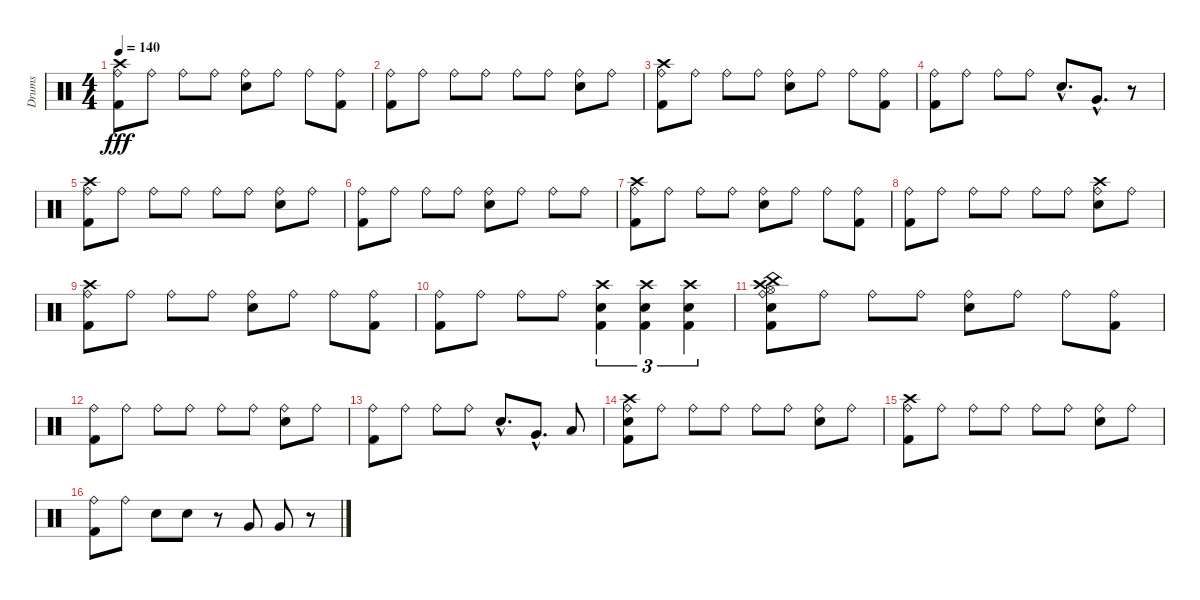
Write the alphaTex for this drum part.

\track ("Drums" "Drums") {instrument percussion}
\staff {score}
\articulation defaults
\ts (4 4)
\tempo 140
\clef neutral
\ks c
("Crash high (hit)" "Ride (bell)" "Kick (hit) 2").8{dy fff} "Ride (bell)".8 "Ride (bell)".8 "Ride (bell)".8 ("Ride (bell)" "Snare (hit) 2").8 "Ride (bell)".8 "Ride (bell)".8 ("Ride (bell)" "Kick (hit) 2").8 |
("Ride (bell)" "Kick (hit) 2").8 "Ride (bell)".8 "Ride (bell)".8 "Ride (bell)".8 "Ride (bell)".8 "Ride (bell)".8 ("Ride (bell)" "Snare (hit) 2").8 "Ride (bell)".8 |
("Crash high (hit)" "Ride (bell)" "Kick (hit) 2").8 "Ride (bell)".8 "Ride (bell)".8 "Ride (bell)".8 ("Ride (bell)" "Snare (hit) 2").8 "Ride (bell)".8 "Ride (bell)".8 ("Ride (bell)" "Kick (hit) 2").8 |
("Ride (bell)" "Kick (hit) 2").8 "Ride (bell)".8 "Ride (bell)".8 "Ride (bell)".8 "Snare (hit) 2"{hac}.8{d} "Very Low Tom (hit)"{hac}.8{d} r.8 |
("Crash high (hit)" "Ride (bell)" "Kick (hit) 2").8 "Ride (bell)".8 "Ride (bell)".8 "Ride (bell)".8 "Ride (bell)".8 "Ride (bell)".8 ("Ride (bell)" "Snare (hit) 2").8 "Ride (bell)".8 |
("Ride (bell)" "Kick (hit) 2").8 "Ride (bell)".8 "Ride (bell)".8 "Ride (bell)".8 ("Ride (bell)" "Snare (hit) 2").8 "Ride (bell)".8 "Ride (bell)".8 "Ride (bell)".8 |
("Crash high (hit)" "Ride (bell)" "Kick (hit) 2").8 "Ride (bell)".8 "Ride (bell)".8 "Ride (bell)".8 ("Ride (bell)" "Snare (hit) 2").8 "Ride (bell)".8 "Ride (bell)".8 ("Ride (bell)" "Kick (hit) 2").8 |
("Ride (bell)" "Kick (hit) 2").8 "Ride (bell)".8 "Ride (bell)".8 "Ride (bell)".8 "Ride (bell)".8 "Ride (bell)".8 ("Crash high (hit)" "Ride (bell)" "Snare (hit) 2").8 "Ride (bell)".8 |
("Crash high (hit)" "Ride (bell)" "Kick (hit) 2").8 "Ride (bell)".8 "Ride (bell)".8 "Ride (bell)".8 ("Ride (bell)" "Snare (hit) 2").8 "Ride (bell)".8 "Ride (bell)".8 ("Ride (bell)" "Kick (hit) 2").8 |
("Ride (bell)" "Kick (hit) 2").8 "Ride (bell)".8 "Ride (bell)".8 "Ride (bell)".8 ("Crash high (hit)" "Snare (hit) 2" "Kick (hit) 2").4{tu (3 2)} ("Crash high (hit)" "Snare (hit) 2" "Kick (hit) 2").4{tu (3 2)} ("Crash high (hit)" "Snare (hit) 2" "Kick (hit) 2").4{tu (3 2)} |
("Hi-Hat (open)" "China (hit)" "Crash high (hit)" "Snare (hit) 2" "Ride (bell)" "Kick (hit) 2").8 "Ride (bell)".8 "Ride (bell)".8 "Ride (bell)".8 ("Ride (bell)" "Snare (hit) 2").8 "Ride (bell)".8 "Ride (bell)".8 ("Ride (bell)" "Kick (hit) 2").8 |
("Ride (bell)" "Kick (hit) 2").8 "Ride (bell)".8 "Ride (bell)".8 "Ride (bell)".8 "Ride (bell)".8 "Ride (bell)".8 ("Ride (bell)" "Snare (hit) 2").8 "Ride (bell)".8 |
("Ride (bell)" "Kick (hit) 2").8 "Ride (bell)".8 "Ride (bell)".8 "Ride (bell)".8 "Snare (hit) 2"{hac}.8{d} "Very Low Tom (hit)"{hac}.8{d} "Low Floor Tom (hit)".8 |
("Crash high (hit)" "Snare (hit) 2" "Ride (bell)" "Kick (hit) 2").8 "Ride (bell)".8 "Ride (bell)".8 "Ride (bell)".8 "Ride (bell)".8 "Ride (bell)".8 ("Ride (bell)" "Snare (hit) 2").8 "Ride (bell)".8 |
("Crash high (hit)" "Ride (bell)" "Kick (hit) 2").8 "Ride (bell)".8 "Ride (bell)".8 "Ride (bell)".8 "Ride (bell)".8 "Ride (bell)".8 ("Ride (bell)" "Snare (hit) 2").8 "Ride (bell)".8 |
("Ride (bell)" "Kick (hit) 2").8 "Ride (bell)".8 "Snare (hit) 2".8 "Snare (hit) 2".8 r.8 "Very Low Tom (hit)".8 "Very Low Tom (hit)".8 r.8
